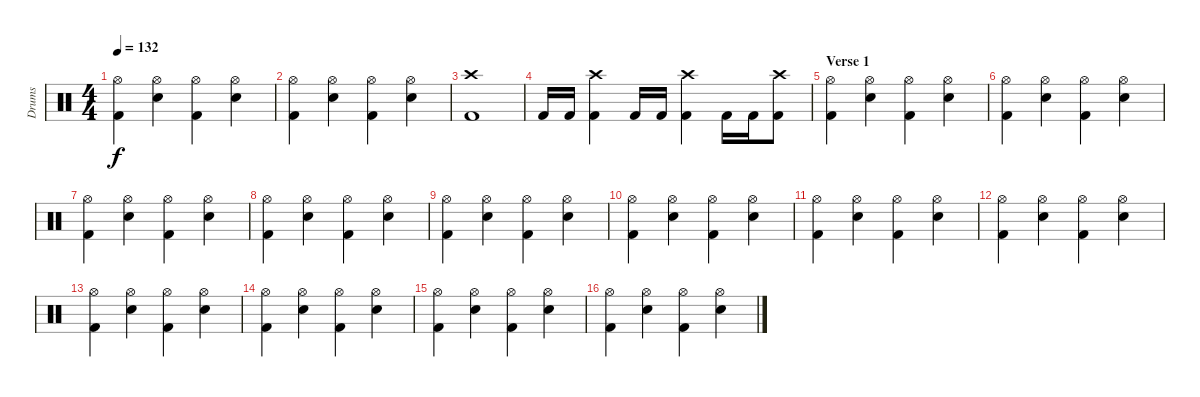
\track ("Drums" "Drums") {instrument percussion}
\staff {score}
\articulation defaults
\ts (4 4)
\tempo 132
\clef neutral
\ks c
("Kick (hit) 2" "Hi-Hat (open)").4{dy f} ("Snare (hit) 2" "Hi-Hat (open)").4 ("Kick (hit) 2" "Hi-Hat (open)").4 ("Snare (hit) 2" "Hi-Hat (open)").4 |
("Kick (hit) 2" "Hi-Hat (open)").4 ("Snare (hit) 2" "Hi-Hat (open)").4 ("Kick (hit) 2" "Hi-Hat (open)").4 ("Snare (hit) 2" "Hi-Hat (open)").4 |
("Kick (hit) 2" "Crash high (hit)").1 |
"Kick (hit) 2".16 "Kick (hit) 2".16 ("Kick (hit) 2" "Crash high (hit)").4 "Kick (hit) 2".16 "Kick (hit) 2".16 ("Kick (hit) 2" "Crash high (hit)").4 "Kick (hit) 2".16 "Kick (hit) 2".16 ("Kick (hit) 2" "Crash high (hit)").8 |
\section ("" "Verse 1")
("Kick (hit) 2" "Hi-Hat (open)").4 ("Snare (hit) 2" "Hi-Hat (open)").4 ("Kick (hit) 2" "Hi-Hat (open)").4 ("Snare (hit) 2" "Hi-Hat (open)").4 |
("Kick (hit) 2" "Hi-Hat (open)").4 ("Snare (hit) 2" "Hi-Hat (open)").4 ("Kick (hit) 2" "Hi-Hat (open)").4 ("Snare (hit) 2" "Hi-Hat (open)").4 |
("Kick (hit) 2" "Hi-Hat (open)").4 ("Snare (hit) 2" "Hi-Hat (open)").4 ("Kick (hit) 2" "Hi-Hat (open)").4 ("Snare (hit) 2" "Hi-Hat (open)").4 |
("Kick (hit) 2" "Hi-Hat (open)").4 ("Snare (hit) 2" "Hi-Hat (open)").4 ("Kick (hit) 2" "Hi-Hat (open)").4 ("Snare (hit) 2" "Hi-Hat (open)").4 |
("Kick (hit) 2" "Hi-Hat (open)").4 ("Snare (hit) 2" "Hi-Hat (open)").4 ("Kick (hit) 2" "Hi-Hat (open)").4 ("Snare (hit) 2" "Hi-Hat (open)").4 |
("Kick (hit) 2" "Hi-Hat (open)").4 ("Snare (hit) 2" "Hi-Hat (open)").4 ("Kick (hit) 2" "Hi-Hat (open)").4 ("Snare (hit) 2" "Hi-Hat (open)").4 |
("Kick (hit) 2" "Hi-Hat (open)").4 ("Snare (hit) 2" "Hi-Hat (open)").4 ("Kick (hit) 2" "Hi-Hat (open)").4 ("Snare (hit) 2" "Hi-Hat (open)").4 |
("Kick (hit) 2" "Hi-Hat (open)").4 ("Snare (hit) 2" "Hi-Hat (open)").4 ("Kick (hit) 2" "Hi-Hat (open)").4 ("Snare (hit) 2" "Hi-Hat (open)").4 |
("Kick (hit) 2" "Hi-Hat (open)").4 ("Snare (hit) 2" "Hi-Hat (open)").4 ("Kick (hit) 2" "Hi-Hat (open)").4 ("Snare (hit) 2" "Hi-Hat (open)").4 |
("Kick (hit) 2" "Hi-Hat (open)").4 ("Snare (hit) 2" "Hi-Hat (open)").4 ("Kick (hit) 2" "Hi-Hat (open)").4 ("Snare (hit) 2" "Hi-Hat (open)").4 |
("Kick (hit) 2" "Hi-Hat (open)").4 ("Snare (hit) 2" "Hi-Hat (open)").4 ("Kick (hit) 2" "Hi-Hat (open)").4 ("Snare (hit) 2" "Hi-Hat (open)").4 |
("Kick (hit) 2" "Hi-Hat (open)").4 ("Snare (hit) 2" "Hi-Hat (open)").4 ("Kick (hit) 2" "Hi-Hat (open)").4 ("Snare (hit) 2" "Hi-Hat (open)").4
